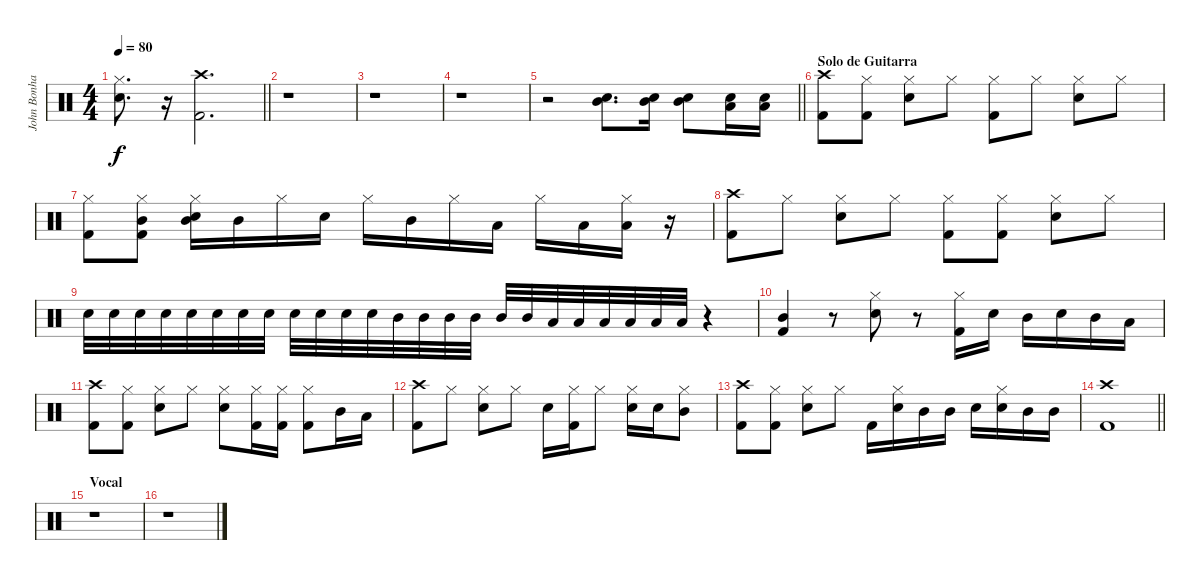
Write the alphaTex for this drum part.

\track ("John Bonham (Bateria)" "John Bonha") {instrument percussion}
\staff {score}
\articulation defaults
\ts (4 4)
\tempo 80
\clef neutral
\barLineRight lightlight
\ks c
("Snare (hit) 2" "Hi-Hat (closed)").8{d dy f} r.16 ("Crash high (hit)" "Kick (hit) 2").2{d} |
r.1 |
r.1 |
r.1 |
\barLineRight lightlight
r.2 ("Mid Tom (hit)" "Snare (hit) 2").8{d} ("Snare (hit) 2" "Mid Tom (hit)").16 ("Mid Tom (hit)" "Snare (hit) 2").8 ("Snare (hit) 2" "Low Floor Tom (hit)").16 ("Snare (hit) 2" "Low Floor Tom (hit)").16 |
\section ("" "Solo de Guitarra")
("Crash high (hit)" "Kick (hit) 2").8 ("Kick (hit) 2" "Hi-Hat (closed)").8 ("Snare (hit) 2" "Hi-Hat (closed)").8 "Hi-Hat (closed)".8 ("Hi-Hat (closed)" "Kick (hit) 2").8 "Hi-Hat (closed)".8 ("Snare (hit) 2" "Hi-Hat (closed)").8 "Hi-Hat (closed)".8 |
("Hi-Hat (closed)" "Kick (hit) 2").8 ("Kick (hit) 2" "Mid Tom (hit)" "Hi-Hat (closed)").8 ("Snare (hit) 2" "Mid Tom (hit)" "Hi-Hat (closed)").16 "Mid Tom (hit)".16 "Hi-Hat (closed)".16 "Snare (hit) 2".16 "Hi-Hat (closed)".16 "Mid Tom (hit)".16 "Hi-Hat (closed)".16 "Low Floor Tom (hit)".16 "Hi-Hat (closed)".16 "Low Floor Tom (hit)".16 ("Hi-Hat (closed)" "Low Floor Tom (hit)").16 r.16 |
("Crash high (hit)" "Kick (hit) 2").8 "Hi-Hat (closed)".8 ("Snare (hit) 2" "Hi-Hat (closed)").8 "Hi-Hat (closed)".8 ("Kick (hit) 2" "Hi-Hat (closed)").8 ("Kick (hit) 2" "Hi-Hat (closed)").8 ("Hi-Hat (closed)" "Snare (hit) 2").8 "Hi-Hat (closed)".8 |
"Snare (hit) 2".32 "Snare (hit) 2".32 "Snare (hit) 2".32 "Snare (hit) 2".32 "Snare (hit) 2".32 "Snare (hit) 2".32 "Snare (hit) 2".32 "Snare (hit) 2".32 "Snare (hit) 2".32 "Snare (hit) 2".32 "Snare (hit) 2".32 "Snare (hit) 2".32 "Mid Tom (hit)".32 "Mid Tom (hit)".32 "Mid Tom (hit)".32 "Mid Tom (hit)".32 "Mid Tom (hit)".32 "Mid Tom (hit)".32 "Low Floor Tom (hit)".32 "Low Floor Tom (hit)".32 "Low Floor Tom (hit)".32 "Low Floor Tom (hit)".32 "Low Floor Tom (hit)".32 "Low Floor Tom (hit)".32 r.4 |
("Mid Tom (hit)" "Kick (hit) 2").4 r.8 ("Snare (hit) 2" "Hi-Hat (closed)").8 r.8 ("Kick (hit) 2" "Hi-Hat (closed)").16 "Snare (hit) 2".16 "Mid Tom (hit)".16 "Snare (hit) 2".16 "Mid Tom (hit)".16 "Low Floor Tom (hit)".16 |
("Crash high (hit)" "Kick (hit) 2").8 ("Hi-Hat (closed)" "Kick (hit) 2").8 ("Hi-Hat (closed)" "Snare (hit) 2").8 "Hi-Hat (closed)".8 ("Snare (hit) 2" "Hi-Hat (closed)").8 ("Kick (hit) 2" "Hi-Hat (closed)").16 ("Hi-Hat (closed)" "Kick (hit) 2").16 ("Kick (hit) 2" "Hi-Hat (closed)").8 "Mid Tom (hit)".16 "Low Floor Tom (hit)".16 |
("Crash high (hit)" "Kick (hit) 2").8 "Hi-Hat (closed)".8 ("Snare (hit) 2" "Hi-Hat (closed)").8 "Hi-Hat (closed)".8 "Snare (hit) 2".16 ("Hi-Hat (closed)" "Kick (hit) 2").16 "Hi-Hat (closed)".8 ("Hi-Hat (closed)" "Snare (hit) 2").16 "Snare (hit) 2".16 ("Hi-Hat (closed)" "Mid Tom (hit)").8 |
("Crash high (hit)" "Kick (hit) 2").8 ("Hi-Hat (closed)" "Kick (hit) 2").8 ("Snare (hit) 2" "Hi-Hat (closed)").8 "Hi-Hat (closed)".8 "Kick (hit) 2".16 ("Hi-Hat (closed)" "Snare (hit) 2").16 "Mid Tom (hit)".16 "Mid Tom (hit)".16 "Snare (hit) 2".16 ("Hi-Hat (closed)" "Snare (hit) 2").16 "Mid Tom (hit)".16 "Mid Tom (hit)".16 |
\barLineRight lightlight
("Kick (hit) 2" "Crash high (hit)").1 |
\section ("" "Vocal")
r.1 |
r.1
